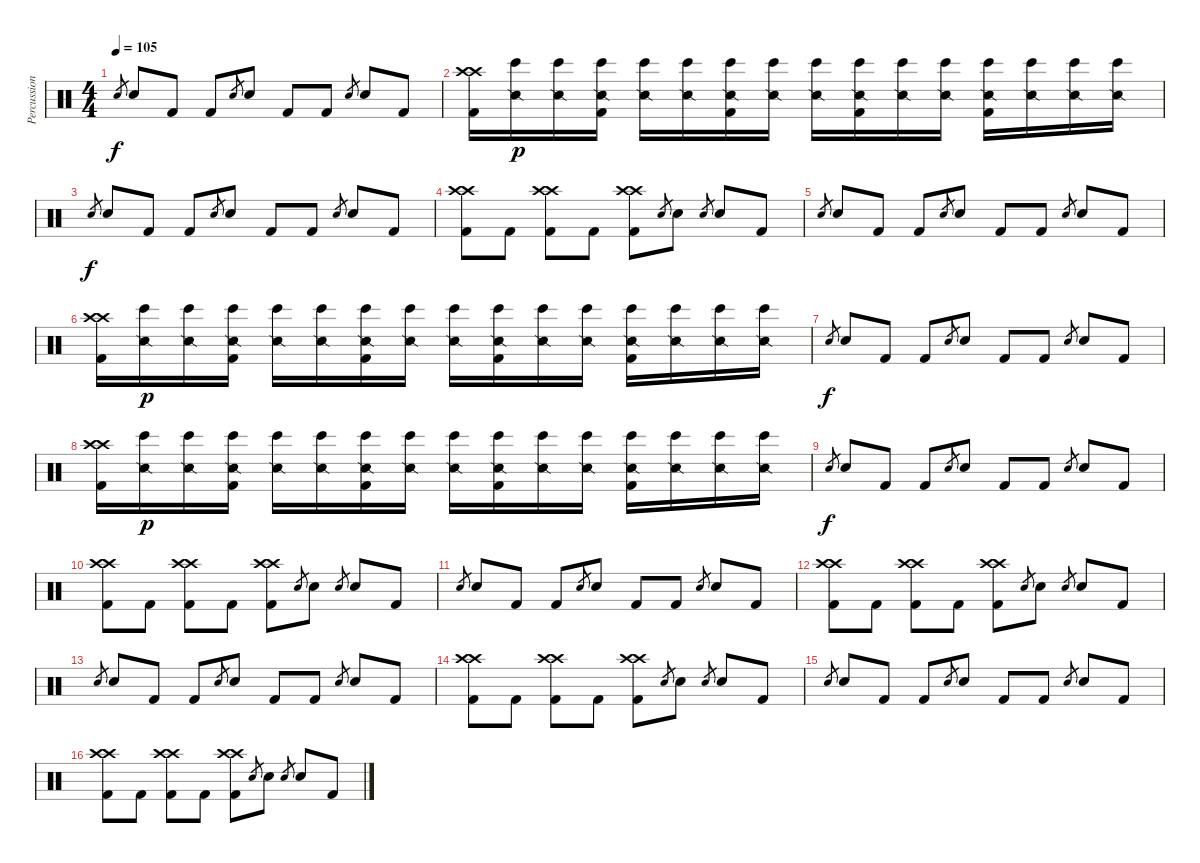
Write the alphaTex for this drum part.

\track ("Percussioni" "Percussion") {instrument percussion}
\staff {score}
\articulation defaults
\ts (4 4)
\tempo 105
\clef neutral
\ks c "Snare (hit) 2".8{gr dy f} "Snare (hit) 2".8 "Kick (hit) 2".8 "Kick (hit) 2".8 "Snare (hit) 2".8{gr} "Snare (hit) 2".8 "Kick (hit) 2".8 "Kick (hit) 2".8 "Snare (hit) 2".8{gr} "Snare (hit) 2".8 "Kick (hit) 2".8
|
("Crash high (hit)" "Crash high (hit)" "Kick (hit) 2").16 ("Snare (side stick) 2" "Bongo High (hit)").16{dy p} ("Snare (side stick) 2" "Bongo High (hit)").16 ("Snare (side stick) 2" "Bongo High (hit)" "Kick (hit) 2").16 ("Snare (side stick) 2" "Bongo High (hit)").16 ("Snare (side stick) 2" "Bongo High (hit)").16 ("Snare (side stick) 2" "Bongo High (hit)" "Kick (hit) 2").16 ("Snare (side stick) 2" "Bongo High (hit)").16 ("Snare (side stick) 2" "Bongo High (hit)").16 ("Snare (side stick) 2" "Bongo High (hit)" "Kick (hit) 2").16 ("Snare (side stick) 2" "Bongo High (hit)").16 ("Snare (side stick) 2" "Bongo High (hit)").16 ("Snare (side stick) 2" "Bongo High (hit)" "Kick (hit) 2").16 ("Snare (side stick) 2" "Bongo High (hit)").16 ("Snare (side stick) 2" "Bongo High (hit)").16 ("Snare (side stick) 2" "Bongo High (hit)").16 |
"Snare (hit) 2".8{gr dy f} "Snare (hit) 2".8 "Kick (hit) 2".8 "Kick (hit) 2".8 "Snare (hit) 2".8{gr} "Snare (hit) 2".8 "Kick (hit) 2".8 "Kick (hit) 2".8 "Snare (hit) 2".8{gr} "Snare (hit) 2".8 "Kick (hit) 2".8 |
("Crash high (hit)" "Crash high (hit)" "Kick (hit) 2").8 "Kick (hit) 2".8 ("Crash high (hit)" "Crash high (hit)" "Kick (hit) 2").8 "Kick (hit) 2".8 ("Crash high (hit)" "Crash high (hit)" "Kick (hit) 2").8 "Snare (hit) 2".8{gr} "Snare (hit) 2".8 "Snare (hit) 2".8{gr} "Snare (hit) 2".8 "Kick (hit) 2".8 |
"Snare (hit) 2".8{gr} "Snare (hit) 2".8 "Kick (hit) 2".8 "Kick (hit) 2".8 "Snare (hit) 2".8{gr} "Snare (hit) 2".8 "Kick (hit) 2".8 "Kick (hit) 2".8 "Snare (hit) 2".8{gr} "Snare (hit) 2".8 "Kick (hit) 2".8 |
("Crash high (hit)" "Crash high (hit)" "Kick (hit) 2").16 ("Snare (side stick) 2" "Bongo High (hit)").16{dy p} ("Snare (side stick) 2" "Bongo High (hit)").16 ("Snare (side stick) 2" "Bongo High (hit)" "Kick (hit) 2").16 ("Snare (side stick) 2" "Bongo High (hit)").16 ("Snare (side stick) 2" "Bongo High (hit)").16 ("Snare (side stick) 2" "Bongo High (hit)" "Kick (hit) 2").16 ("Snare (side stick) 2" "Bongo High (hit)").16 ("Snare (side stick) 2" "Bongo High (hit)").16 ("Snare (side stick) 2" "Bongo High (hit)" "Kick (hit) 2").16 ("Snare (side stick) 2" "Bongo High (hit)").16 ("Snare (side stick) 2" "Bongo High (hit)").16 ("Snare (side stick) 2" "Bongo High (hit)" "Kick (hit) 2").16 ("Snare (side stick) 2" "Bongo High (hit)").16 ("Snare (side stick) 2" "Bongo High (hit)").16 ("Snare (side stick) 2" "Bongo High (hit)").16 |
"Snare (hit) 2".8{gr dy f} "Snare (hit) 2".8 "Kick (hit) 2".8 "Kick (hit) 2".8 "Snare (hit) 2".8{gr} "Snare (hit) 2".8 "Kick (hit) 2".8 "Kick (hit) 2".8 "Snare (hit) 2".8{gr} "Snare (hit) 2".8 "Kick (hit) 2".8 |
("Crash high (hit)" "Crash high (hit)" "Kick (hit) 2").16 ("Snare (side stick) 2" "Bongo High (hit)").16{dy p} ("Snare (side stick) 2" "Bongo High (hit)").16 ("Snare (side stick) 2" "Bongo High (hit)" "Kick (hit) 2").16 ("Snare (side stick) 2" "Bongo High (hit)").16 ("Snare (side stick) 2" "Bongo High (hit)").16 ("Snare (side stick) 2" "Bongo High (hit)" "Kick (hit) 2").16 ("Snare (side stick) 2" "Bongo High (hit)").16 ("Snare (side stick) 2" "Bongo High (hit)").16 ("Snare (side stick) 2" "Bongo High (hit)" "Kick (hit) 2").16 ("Snare (side stick) 2" "Bongo High (hit)").16 ("Snare (side stick) 2" "Bongo High (hit)").16 ("Snare (side stick) 2" "Bongo High (hit)" "Kick (hit) 2").16 ("Snare (side stick) 2" "Bongo High (hit)").16 ("Snare (side stick) 2" "Bongo High (hit)").16 ("Snare (side stick) 2" "Bongo High (hit)").16 |
"Snare (hit) 2".8{gr dy f} "Snare (hit) 2".8 "Kick (hit) 2".8 "Kick (hit) 2".8 "Snare (hit) 2".8{gr} "Snare (hit) 2".8 "Kick (hit) 2".8 "Kick (hit) 2".8 "Snare (hit) 2".8{gr} "Snare (hit) 2".8 "Kick (hit) 2".8 |
("Crash high (hit)" "Crash high (hit)" "Kick (hit) 2").8 "Kick (hit) 2".8 ("Crash high (hit)" "Crash high (hit)" "Kick (hit) 2").8 "Kick (hit) 2".8 ("Crash high (hit)" "Crash high (hit)" "Kick (hit) 2").8 "Snare (hit) 2".8{gr} "Snare (hit) 2".8 "Snare (hit) 2".8{gr} "Snare (hit) 2".8 "Kick (hit) 2".8 |
"Snare (hit) 2".8{gr} "Snare (hit) 2".8 "Kick (hit) 2".8 "Kick (hit) 2".8 "Snare (hit) 2".8{gr} "Snare (hit) 2".8 "Kick (hit) 2".8 "Kick (hit) 2".8 "Snare (hit) 2".8{gr} "Snare (hit) 2".8 "Kick (hit) 2".8 |
("Crash high (hit)" "Crash high (hit)" "Kick (hit) 2").8 "Kick (hit) 2".8 ("Crash high (hit)" "Crash high (hit)" "Kick (hit) 2").8 "Kick (hit) 2".8 ("Crash high (hit)" "Crash high (hit)" "Kick (hit) 2").8 "Snare (hit) 2".8{gr} "Snare (hit) 2".8 "Snare (hit) 2".8{gr} "Snare (hit) 2".8 "Kick (hit) 2".8 |
"Snare (hit) 2".8{gr} "Snare (hit) 2".8 "Kick (hit) 2".8 "Kick (hit) 2".8 "Snare (hit) 2".8{gr} "Snare (hit) 2".8 "Kick (hit) 2".8 "Kick (hit) 2".8 "Snare (hit) 2".8{gr} "Snare (hit) 2".8 "Kick (hit) 2".8 |
("Crash high (hit)" "Crash high (hit)" "Kick (hit) 2").8 "Kick (hit) 2".8 ("Crash high (hit)" "Crash high (hit)" "Kick (hit) 2").8 "Kick (hit) 2".8 ("Crash high (hit)" "Crash high (hit)" "Kick (hit) 2").8 "Snare (hit) 2".8{gr} "Snare (hit) 2".8 "Snare (hit) 2".8{gr} "Snare (hit) 2".8 "Kick (hit) 2".8 |
"Snare (hit) 2".8{gr} "Snare (hit) 2".8 "Kick (hit) 2".8 "Kick (hit) 2".8 "Snare (hit) 2".8{gr} "Snare (hit) 2".8 "Kick (hit) 2".8 "Kick (hit) 2".8 "Snare (hit) 2".8{gr} "Snare (hit) 2".8 "Kick (hit) 2".8 |
("Crash high (hit)" "Crash high (hit)" "Kick (hit) 2").8 "Kick (hit) 2".8 ("Crash high (hit)" "Crash high (hit)" "Kick (hit) 2").8 "Kick (hit) 2".8 ("Crash high (hit)" "Crash high (hit)" "Kick (hit) 2").8 "Snare (hit) 2".8{gr} "Snare (hit) 2".8 "Snare (hit) 2".8{gr} "Snare (hit) 2".8 "Kick (hit) 2".8
